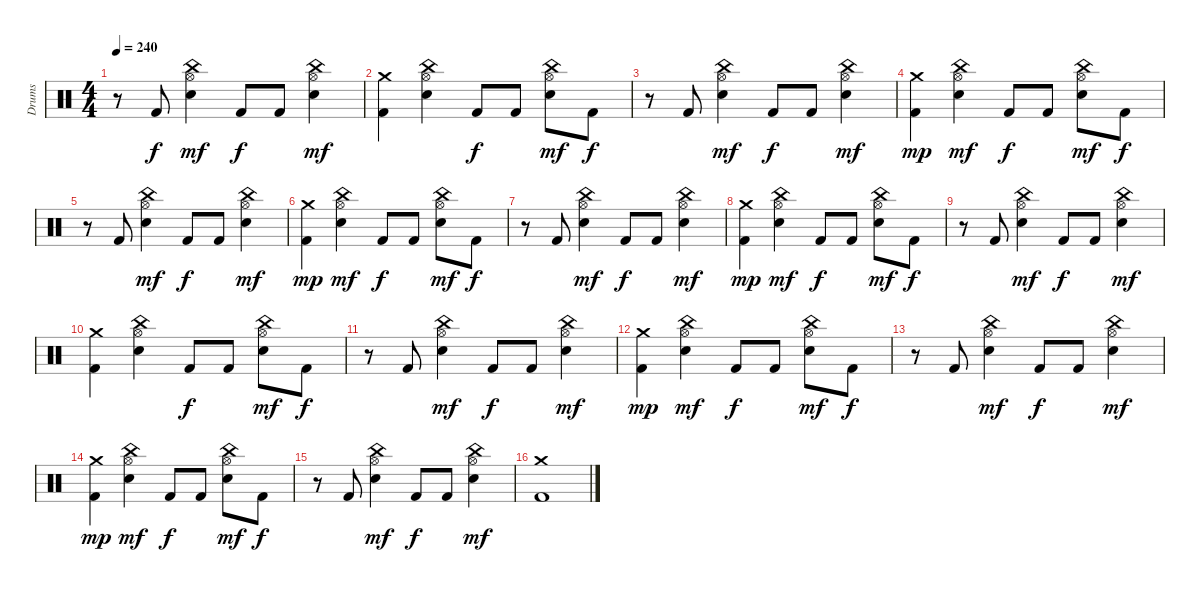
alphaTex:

\track ("Drums" "Drums") {instrument percussion}
\staff {score}
\articulation defaults
\ts (4 4)
\tempo 240
\clef neutral
\ks c
r.8{dy f} "Kick (hit) 2".8 ("Electric Snare (hit)" "China (hit)" "Hi-Hat (open)").4{dy mf} "Kick (hit) 2".8{dy f} "Kick (hit) 2".8 ("Electric Snare (hit)" "China (hit)" "Hi-Hat (open)").4{dy mf} |
("Kick (hit) 2" "Crash medium (hit)").4 ("Electric Snare (hit)" "China (hit)" "Hi-Hat (open)").4 "Kick (hit) 2".8{dy f} "Kick (hit) 2".8 ("Electric Snare (hit)" "China (hit)" "Hi-Hat (open)").8{dy mf} "Kick (hit) 2".8{dy f} |
r.8 "Kick (hit) 2".8 ("Electric Snare (hit)" "China (hit)" "Hi-Hat (open)").4{dy mf} "Kick (hit) 2".8{dy f} "Kick (hit) 2".8 ("Electric Snare (hit)" "China (hit)" "Hi-Hat (open)").4{dy mf} |
("Kick (hit) 2" "Crash medium (hit)").4{dy mp} ("Electric Snare (hit)" "China (hit)" "Hi-Hat (open)").4{dy mf} "Kick (hit) 2".8{dy f} "Kick (hit) 2".8 ("Electric Snare (hit)" "China (hit)" "Hi-Hat (open)").8{dy mf} "Kick (hit) 2".8{dy f} |
r.8 "Kick (hit) 2".8 ("Electric Snare (hit)" "China (hit)" "Hi-Hat (open)").4{dy mf} "Kick (hit) 2".8{dy f} "Kick (hit) 2".8 ("Electric Snare (hit)" "China (hit)" "Hi-Hat (open)").4{dy mf} |
("Kick (hit) 2" "Crash medium (hit)").4{dy mp} ("Electric Snare (hit)" "China (hit)" "Hi-Hat (open)").4{dy mf} "Kick (hit) 2".8{dy f} "Kick (hit) 2".8 ("Electric Snare (hit)" "China (hit)" "Hi-Hat (open)").8{dy mf} "Kick (hit) 2".8{dy f} |
r.8 "Kick (hit) 2".8 ("Electric Snare (hit)" "China (hit)" "Hi-Hat (open)").4{dy mf} "Kick (hit) 2".8{dy f} "Kick (hit) 2".8 ("Electric Snare (hit)" "China (hit)" "Hi-Hat (open)").4{dy mf} |
("Kick (hit) 2" "Crash medium (hit)").4{dy mp} ("Electric Snare (hit)" "China (hit)" "Hi-Hat (open)").4{dy mf} "Kick (hit) 2".8{dy f} "Kick (hit) 2".8 ("Electric Snare (hit)" "China (hit)" "Hi-Hat (open)").8{dy mf} "Kick (hit) 2".8{dy f} |
r.8 "Kick (hit) 2".8 ("Electric Snare (hit)" "China (hit)" "Hi-Hat (open)").4{dy mf} "Kick (hit) 2".8{dy f} "Kick (hit) 2".8 ("Electric Snare (hit)" "China (hit)" "Hi-Hat (open)").4{dy mf} |
("Kick (hit) 2" "Crash medium (hit)").4 ("Electric Snare (hit)" "China (hit)" "Hi-Hat (open)").4 "Kick (hit) 2".8{dy f} "Kick (hit) 2".8 ("Electric Snare (hit)" "China (hit)" "Hi-Hat (open)").8{dy mf} "Kick (hit) 2".8{dy f} |
r.8 "Kick (hit) 2".8 ("Electric Snare (hit)" "China (hit)" "Hi-Hat (open)").4{dy mf} "Kick (hit) 2".8{dy f} "Kick (hit) 2".8 ("Electric Snare (hit)" "China (hit)" "Hi-Hat (open)").4{dy mf} |
("Kick (hit) 2" "Crash medium (hit)").4{dy mp} ("Electric Snare (hit)" "China (hit)" "Hi-Hat (open)").4{dy mf} "Kick (hit) 2".8{dy f} "Kick (hit) 2".8 ("Electric Snare (hit)" "China (hit)" "Hi-Hat (open)").8{dy mf} "Kick (hit) 2".8{dy f} |
r.8 "Kick (hit) 2".8 ("Electric Snare (hit)" "China (hit)" "Hi-Hat (open)").4{dy mf} "Kick (hit) 2".8{dy f} "Kick (hit) 2".8 ("Electric Snare (hit)" "China (hit)" "Hi-Hat (open)").4{dy mf} |
("Kick (hit) 2" "Crash medium (hit)").4{dy mp} ("Electric Snare (hit)" "China (hit)" "Hi-Hat (open)").4{dy mf} "Kick (hit) 2".8{dy f} "Kick (hit) 2".8 ("Electric Snare (hit)" "China (hit)" "Hi-Hat (open)").8{dy mf} "Kick (hit) 2".8{dy f} |
r.8 "Kick (hit) 2".8 ("Electric Snare (hit)" "China (hit)" "Hi-Hat (open)").4{dy mf} "Kick (hit) 2".8{dy f} "Kick (hit) 2".8 ("Electric Snare (hit)" "China (hit)" "Hi-Hat (open)").4{dy mf} |
("Kick (hit) 2" "Crash medium (hit)").1
